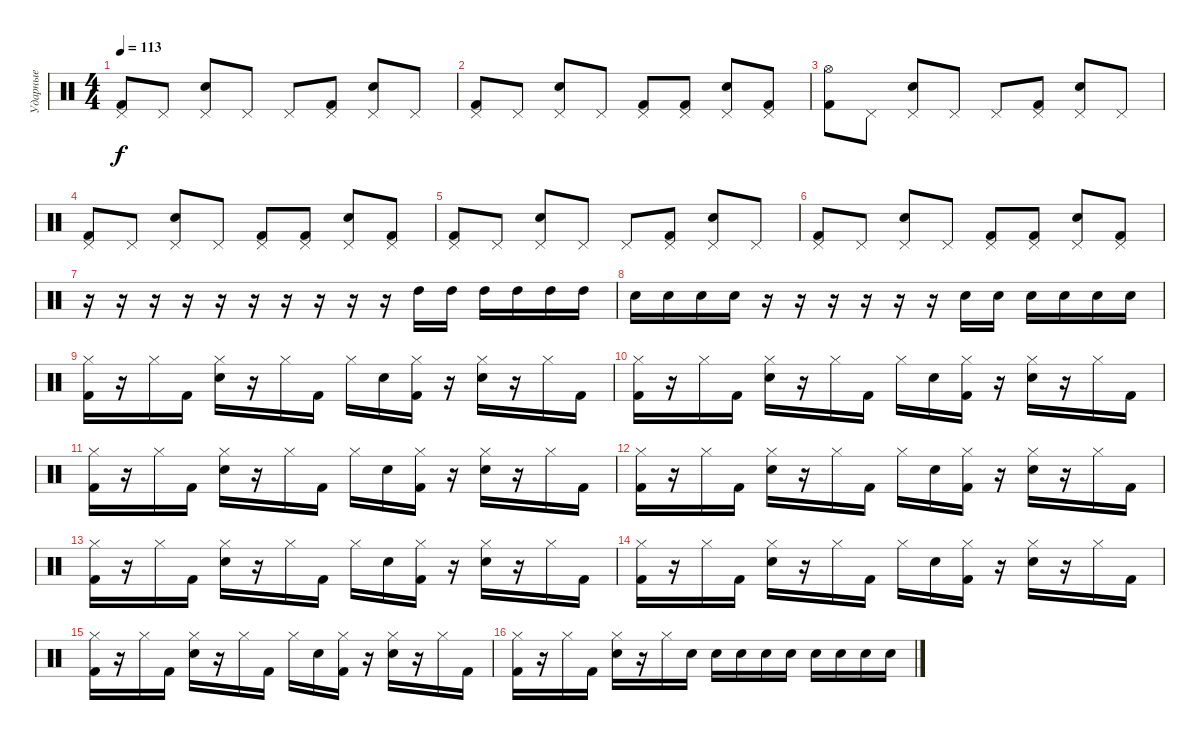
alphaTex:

\track ("Ударные" "Ударные") {instrument percussion}
\staff {score}
\articulation defaults
\ts (4 4)
\tempo 113
\clef neutral
\ks c
("Kick (hit) 2" "Pedal Hi-Hat (hit)").8{dy f} "Pedal Hi-Hat (hit)".8 ("Electric Snare (hit)" "Pedal Hi-Hat (hit)").8 "Pedal Hi-Hat (hit)".8 "Pedal Hi-Hat (hit)".8 ("Kick (hit) 2" "Pedal Hi-Hat (hit)").8 ("Electric Snare (hit)" "Pedal Hi-Hat (hit)").8 "Pedal Hi-Hat (hit)".8 |
("Kick (hit) 2" "Pedal Hi-Hat (hit)").8 "Pedal Hi-Hat (hit)".8 ("Electric Snare (hit)" "Pedal Hi-Hat (hit)").8 "Pedal Hi-Hat (hit)".8 ("Kick (hit) 2" "Pedal Hi-Hat (hit)").8 ("Kick (hit) 2" "Pedal Hi-Hat (hit)").8 ("Electric Snare (hit)" "Pedal Hi-Hat (hit)").8 ("Kick (hit) 2" "Pedal Hi-Hat (hit)").8 |
("Kick (hit) 2" "Hi-Hat (open)").8 "Pedal Hi-Hat (hit)".8 ("Electric Snare (hit)" "Pedal Hi-Hat (hit)").8 "Pedal Hi-Hat (hit)".8 "Pedal Hi-Hat (hit)".8 ("Kick (hit) 2" "Pedal Hi-Hat (hit)").8 ("Electric Snare (hit)" "Pedal Hi-Hat (hit)").8 "Pedal Hi-Hat (hit)".8 |
("Kick (hit) 2" "Pedal Hi-Hat (hit)").8 "Pedal Hi-Hat (hit)".8 ("Electric Snare (hit)" "Pedal Hi-Hat (hit)").8 "Pedal Hi-Hat (hit)".8 ("Kick (hit) 2" "Pedal Hi-Hat (hit)").8 ("Kick (hit) 2" "Pedal Hi-Hat (hit)").8 ("Electric Snare (hit)" "Pedal Hi-Hat (hit)").8 ("Kick (hit) 2" "Pedal Hi-Hat (hit)").8 |
("Kick (hit) 2" "Pedal Hi-Hat (hit)").8 "Pedal Hi-Hat (hit)".8 ("Electric Snare (hit)" "Pedal Hi-Hat (hit)").8 "Pedal Hi-Hat (hit)".8 "Pedal Hi-Hat (hit)".8 ("Kick (hit) 2" "Pedal Hi-Hat (hit)").8 ("Electric Snare (hit)" "Pedal Hi-Hat (hit)").8 "Pedal Hi-Hat (hit)".8 |
("Kick (hit) 2" "Pedal Hi-Hat (hit)").8 "Pedal Hi-Hat (hit)".8 ("Electric Snare (hit)" "Pedal Hi-Hat (hit)").8 "Pedal Hi-Hat (hit)".8 ("Kick (hit) 2" "Pedal Hi-Hat (hit)").8 ("Kick (hit) 2" "Pedal Hi-Hat (hit)").8 ("Electric Snare (hit)" "Pedal Hi-Hat (hit)").8 ("Kick (hit) 2" "Pedal Hi-Hat (hit)").8 |
r.16 r.16 r.16 r.16 r.16 r.16 r.16 r.16 r.16 r.16 "High Tom (hit)".16 "High Tom (hit)".16 "High Tom (hit)".16 "High Tom (hit)".16 "High Tom (hit)".16 "High Tom (hit)".16 |
"Electric Snare (hit)".16 "Electric Snare (hit)".16 "Electric Snare (hit)".16 "Electric Snare (hit)".16 r.16 r.16 r.16 r.16 r.16 r.16 "Electric Snare (hit)".16 "Electric Snare (hit)".16 "Electric Snare (hit)".16 "Electric Snare (hit)".16 "Electric Snare (hit)".16 "Electric Snare (hit)".16 |
("Kick (hit) 2" "Hi-Hat (closed)").16 r.16 "Hi-Hat (closed)".16 "Kick (hit) 2".16 ("Electric Snare (hit)" "Hi-Hat (closed)").16 r.16 "Hi-Hat (closed)".16 "Kick (hit) 2".16 "Hi-Hat (closed)".16 "Electric Snare (hit)".16 ("Kick (hit) 2" "Hi-Hat (closed)").16 r.16 ("Electric Snare (hit)" "Hi-Hat (closed)").16 r.16 "Hi-Hat (closed)".16 "Kick (hit) 2".16 |
("Kick (hit) 2" "Hi-Hat (closed)").16 r.16 "Hi-Hat (closed)".16 "Kick (hit) 2".16 ("Electric Snare (hit)" "Hi-Hat (closed)").16 r.16 "Hi-Hat (closed)".16 "Kick (hit) 2".16 "Hi-Hat (closed)".16 "Electric Snare (hit)".16 ("Kick (hit) 2" "Hi-Hat (closed)").16 r.16 ("Electric Snare (hit)" "Hi-Hat (closed)").16 r.16 "Hi-Hat (closed)".16 "Kick (hit) 2".16 |
("Kick (hit) 2" "Hi-Hat (closed)").16 r.16 "Hi-Hat (closed)".16 "Kick (hit) 2".16 ("Electric Snare (hit)" "Hi-Hat (closed)").16 r.16 "Hi-Hat (closed)".16 "Kick (hit) 2".16 "Hi-Hat (closed)".16 "Electric Snare (hit)".16 ("Kick (hit) 2" "Hi-Hat (closed)").16 r.16 ("Electric Snare (hit)" "Hi-Hat (closed)").16 r.16 "Hi-Hat (closed)".16 "Kick (hit) 2".16 |
("Kick (hit) 2" "Hi-Hat (closed)").16 r.16 "Hi-Hat (closed)".16 "Kick (hit) 2".16 ("Electric Snare (hit)" "Hi-Hat (closed)").16 r.16 "Hi-Hat (closed)".16 "Kick (hit) 2".16 "Hi-Hat (closed)".16 "Electric Snare (hit)".16 ("Kick (hit) 2" "Hi-Hat (closed)").16 r.16 ("Electric Snare (hit)" "Hi-Hat (closed)").16 r.16 "Hi-Hat (closed)".16 "Kick (hit) 2".16 |
("Kick (hit) 2" "Hi-Hat (closed)").16 r.16 "Hi-Hat (closed)".16 "Kick (hit) 2".16 ("Electric Snare (hit)" "Hi-Hat (closed)").16 r.16 "Hi-Hat (closed)".16 "Kick (hit) 2".16 "Hi-Hat (closed)".16 "Electric Snare (hit)".16 ("Kick (hit) 2" "Hi-Hat (closed)").16 r.16 ("Electric Snare (hit)" "Hi-Hat (closed)").16 r.16 "Hi-Hat (closed)".16 "Kick (hit) 2".16 |
("Kick (hit) 2" "Hi-Hat (closed)").16 r.16 "Hi-Hat (closed)".16 "Kick (hit) 2".16 ("Electric Snare (hit)" "Hi-Hat (closed)").16 r.16 "Hi-Hat (closed)".16 "Kick (hit) 2".16 "Hi-Hat (closed)".16 "Electric Snare (hit)".16 ("Kick (hit) 2" "Hi-Hat (closed)").16 r.16 ("Electric Snare (hit)" "Hi-Hat (closed)").16 r.16 "Hi-Hat (closed)".16 "Kick (hit) 2".16 |
("Kick (hit) 2" "Hi-Hat (closed)").16 r.16 "Hi-Hat (closed)".16 "Kick (hit) 2".16 ("Electric Snare (hit)" "Hi-Hat (closed)").16 r.16 "Hi-Hat (closed)".16 "Kick (hit) 2".16 "Hi-Hat (closed)".16 "Electric Snare (hit)".16 ("Kick (hit) 2" "Hi-Hat (closed)").16 r.16 ("Electric Snare (hit)" "Hi-Hat (closed)").16 r.16 "Hi-Hat (closed)".16 "Kick (hit) 2".16 |
("Kick (hit) 2" "Hi-Hat (closed)").16 r.16 "Hi-Hat (closed)".16 "Kick (hit) 2".16 ("Electric Snare (hit)" "Hi-Hat (closed)").16 r.16 "Hi-Hat (closed)".16 "Electric Snare (hit)".16 "Electric Snare (hit)".16 "Electric Snare (hit)".16 "Electric Snare (hit)".16 "Electric Snare (hit)".16 "Electric Snare (hit)".16 "Electric Snare (hit)".16 "Electric Snare (hit)".16 "Electric Snare (hit)".16
